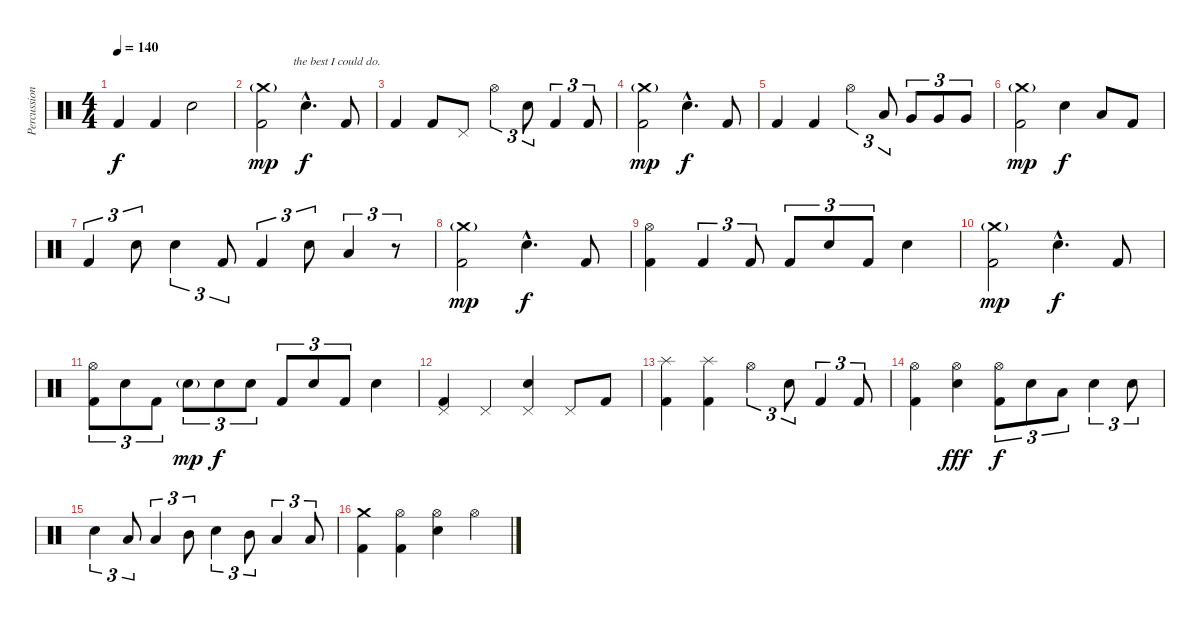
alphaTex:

\track ("Percussion" "Percussion") {instrument percussion}
\staff {score}
\articulation defaults
\ts (4 4)
\tempo 140
\clef neutral
\ks c "Kick (hit) 2".4{dy f} "Kick (hit) 2".4 "Snare (hit) 2".2
|
("Crash medium (hit)"{g} "Kick (hit) 2").2{txt "          the best I could do." dy mp} "Snare (hit) 2"{hac}.4{d dy f} "Kick (hit) 2".8 |
"Kick (hit) 2".4 "Kick (hit) 2".8 "Pedal Hi-Hat (hit)".8 "Hi-Hat (open)".4{tu (3 2)} "Snare (hit) 2".8{tu (3 2)} "Kick (hit) 2".4{tu (3 2)} "Kick (hit) 2".8{tu (3 2)} |
("Crash medium (hit)"{g} "Kick (hit) 2").2{dy mp} "Snare (hit) 2"{hac}.4{d dy f} "Kick (hit) 2".8 |
"Kick (hit) 2".4 "Kick (hit) 2".4 "Hi-Hat (open)".4{tu (3 2)} "Low Tom (hit)".8{tu (3 2)} "Very Low Tom (hit)".8{tu (3 2)} "Very Low Tom (hit)".8{tu (3 2)} "Very Low Tom (hit)".8{tu (3 2)} |
("Crash medium (hit)"{g} "Kick (hit) 2").2{dy mp} "Snare (hit) 2".4{dy f} "Low Tom (hit)".8 "Kick (hit) 2".8 |
"Kick (hit) 2".4{tu (3 2)} "Snare (hit) 2".8{tu (3 2)} "Snare (hit) 2".4{tu (3 2)} "Kick (hit) 2".8{tu (3 2)} "Kick (hit) 2".4{tu (3 2)} "Snare (hit) 2".8{tu (3 2)} "Low Tom (hit)".4{tu (3 2)} r.8{tu (3 2)} |
("Crash medium (hit)"{g} "Kick (hit) 2").2{dy mp} "Snare (hit) 2"{hac}.4{d dy f} "Kick (hit) 2".8 |
("Hi-Hat (open)" "Kick (hit) 2").4 "Kick (hit) 2".4{tu (3 2)} "Kick (hit) 2".8{tu (3 2)} "Kick (hit) 2".8{tu (3 2)} "Snare (hit) 2".8{tu (3 2)} "Kick (hit) 2".8{tu (3 2)} "Snare (hit) 2".4 |
("Crash medium (hit)"{g} "Kick (hit) 2").2{dy mp} "Snare (hit) 2"{hac}.4{d dy f} "Kick (hit) 2".8 |
("Hi-Hat (open)" "Kick (hit) 2").8{tu (3 2)} "Snare (hit) 2".8{tu (3 2)} "Kick (hit) 2".8{tu (3 2)} "Snare (hit) 2"{g}.8{tu (3 2) dy mp} "Snare (hit) 2".8{tu (3 2) dy f} "Snare (hit) 2".8{tu (3 2)} "Kick (hit) 2".8{tu (3 2)} "Snare (hit) 2".8{tu (3 2)} "Kick (hit) 2".8{tu (3 2)} "Snare (hit) 2".4 |
("Pedal Hi-Hat (hit)" "Kick (hit) 2").4 "Pedal Hi-Hat (hit)".4 ("Pedal Hi-Hat (hit)" "Snare (hit) 2").4 "Pedal Hi-Hat (hit)".8 "Kick (hit) 2".8 |
("Splash (hit)" "Kick (hit) 2").4 ("Splash (hit)" "Kick (hit) 2").4 "Hi-Hat (open)".4{tu (3 2)} "Snare (hit) 2".8{tu (3 2)} "Kick (hit) 2".4{tu (3 2)} "Kick (hit) 2".8{tu (3 2)} |
("Hi-Hat (open)" "Kick (hit) 2").4 ("Hi-Hat (open)" "Snare (hit) 2").4{dy fff} ("Hi-Hat (open)" "Kick (hit) 2").8{tu (3 2) dy f} "Snare (hit) 2".8{tu (3 2)} "Low Tom (hit)".8{tu (3 2)} "Snare (hit) 2".4{tu (3 2)} "Snare (hit) 2".8{tu (3 2)} |
"Snare (hit) 2".4{tu (3 2)} "Low Tom (hit)".8{tu (3 2)} "Low Tom (hit)".4{tu (3 2)} "Mid Tom (hit)".8{tu (3 2)} "Snare (hit) 2".4{tu (3 2)} "Mid Tom (hit)".8{tu (3 2)} "Low Tom (hit)".4{tu (3 2)} "Low Tom (hit)".8{tu (3 2)} |
("Crash medium (hit)" "Kick (hit) 2").4 ("Hi-Hat (open)" "Kick (hit) 2").4 ("Hi-Hat (open)" "Snare (hit) 2").4 "Hi-Hat (open)".4
